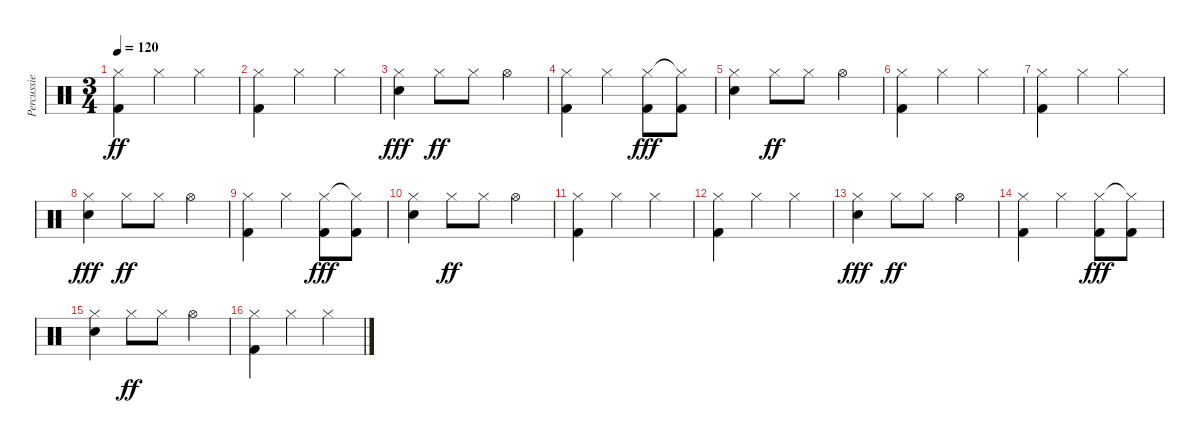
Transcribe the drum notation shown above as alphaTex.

\track ("Percussie" "Percussie") {instrument percussion}
\staff {score}
\articulation defaults
\ts (3 4)
\tempo 120
\clef neutral
\ks c
("Hi-Hat (closed)" "Kick (hit) 2").4{dy ff} "Hi-Hat (closed)".4 "Hi-Hat (closed)".4 |
("Hi-Hat (closed)" "Kick (hit) 2").4 "Hi-Hat (closed)".4 "Hi-Hat (closed)".4 |
("Hi-Hat (closed)" "Electric Snare (hit)").4{dy fff} "Hi-Hat (closed)".8{dy ff} "Hi-Hat (closed)".8 "Hi-Hat (open)".4 |
("Hi-Hat (closed)" "Kick (hit) 2").4 "Hi-Hat (closed)".4 ("Hi-Hat (closed)" "Kick (hit) 2").8{dy fff} ("Hi-Hat (closed)"{t} "Kick (hit) 2").8 |
("Hi-Hat (closed)" "Electric Snare (hit)").4 "Hi-Hat (closed)".8{dy ff} "Hi-Hat (closed)".8 "Hi-Hat (open)".4 |
("Hi-Hat (closed)" "Kick (hit) 2").4 "Hi-Hat (closed)".4 "Hi-Hat (closed)".4 |
("Hi-Hat (closed)" "Kick (hit) 2").4 "Hi-Hat (closed)".4 "Hi-Hat (closed)".4 |
("Hi-Hat (closed)" "Electric Snare (hit)").4{dy fff} "Hi-Hat (closed)".8{dy ff} "Hi-Hat (closed)".8 "Hi-Hat (open)".4 |
("Hi-Hat (closed)" "Kick (hit) 2").4 "Hi-Hat (closed)".4 ("Hi-Hat (closed)" "Kick (hit) 2").8{dy fff} ("Hi-Hat (closed)"{t} "Kick (hit) 2").8 |
("Hi-Hat (closed)" "Electric Snare (hit)").4 "Hi-Hat (closed)".8{dy ff} "Hi-Hat (closed)".8 "Hi-Hat (open)".4 |
("Hi-Hat (closed)" "Kick (hit) 2").4 "Hi-Hat (closed)".4 "Hi-Hat (closed)".4 |
("Hi-Hat (closed)" "Kick (hit) 2").4 "Hi-Hat (closed)".4 "Hi-Hat (closed)".4 |
("Hi-Hat (closed)" "Electric Snare (hit)").4{dy fff} "Hi-Hat (closed)".8{dy ff} "Hi-Hat (closed)".8 "Hi-Hat (open)".4 |
("Hi-Hat (closed)" "Kick (hit) 2").4 "Hi-Hat (closed)".4 ("Hi-Hat (closed)" "Kick (hit) 2").8{dy fff} ("Hi-Hat (closed)"{t} "Kick (hit) 2").8 |
("Hi-Hat (closed)" "Electric Snare (hit)").4 "Hi-Hat (closed)".8{dy ff} "Hi-Hat (closed)".8 "Hi-Hat (open)".4 |
("Hi-Hat (closed)" "Kick (hit) 2").4 "Hi-Hat (closed)".4 "Hi-Hat (closed)".4
